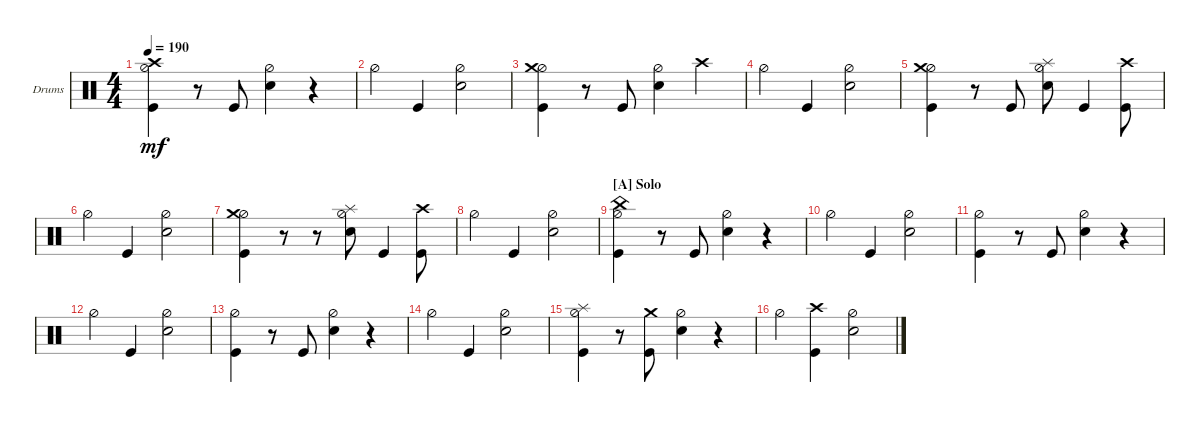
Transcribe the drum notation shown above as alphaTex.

\defaultSystemsLayout 4
\bracketExtendMode groupsimilarinstruments
\firstSystemTrackNameOrientation horizontal
\otherSystemsTrackNameOrientation horizontal
\track ("Drumkit" "Drums") {instrument percussion}
\staff {score}
\articulation defaults
\ts (4 4)
\tempo 190
\clef neutral
\ks c
("Hi-Hat (half)" "Kick (hit)" "Crash high (hit)").4{dy mf} r.8 "Kick (hit)".8 ("Hi-Hat (half)" "Snare (hit) 2").4 r.4 |
"Hi-Hat (half)".4 "Kick (hit)".4 ("Snare (hit) 2" "Hi-Hat (half)").2 |
("Hi-Hat (half)" "Kick (hit)" "Crash medium (hit)").4 r.8 "Kick (hit)".8 ("Hi-Hat (half)" "Snare (hit) 2").4 "Crash high (hit)".4 |
"Hi-Hat (half)".4 "Kick (hit)".4 ("Snare (hit) 2" "Hi-Hat (half)").2 |
("Hi-Hat (half)" "Kick (hit)" "Crash medium (hit)").4 r.8 "Kick (hit)".8 ("Hi-Hat (half)" "Snare (hit) 2" "Splash (hit)").8 "Kick (hit)".4 ("Kick (hit)" "Crash high (hit)").8 |
"Hi-Hat (half)".4 "Kick (hit)".4 ("Snare (hit) 2" "Hi-Hat (half)").2 |
("Hi-Hat (half)" "Kick (hit)" "Crash medium (hit)").4 r.8 r.8 ("Hi-Hat (half)" "Snare (hit) 2" "Splash (hit)").8 "Kick (hit)".4 ("Kick (hit)" "Crash high (hit)").8 |
"Hi-Hat (half)".4 "Kick (hit)".4 ("Snare (hit) 2" "Hi-Hat (half)").2 |
\section ("A" "Solo")
("Hi-Hat (half)" "Kick (hit)" "China (hit)").4 r.8 "Kick (hit)".8 ("Hi-Hat (half)" "Snare (hit) 2").4 r.4 |
"Hi-Hat (half)".4 "Kick (hit)".4 ("Snare (hit) 2" "Hi-Hat (half)").2 |
("Hi-Hat (half)" "Kick (hit)").4 r.8 "Kick (hit)".8 ("Hi-Hat (half)" "Snare (hit) 2").4 r.4 |
"Hi-Hat (half)".4 "Kick (hit)".4 ("Snare (hit) 2" "Hi-Hat (half)").2 |
("Hi-Hat (half)" "Kick (hit)").4 r.8 "Kick (hit)".8 ("Hi-Hat (half)" "Snare (hit) 2").4 r.4 |
"Hi-Hat (half)".4 "Kick (hit)".4 ("Snare (hit) 2" "Hi-Hat (half)").2 |
("Hi-Hat (half)" "Kick (hit)" "Splash (hit)").4 r.8 ("Kick (hit)" "Crash medium (hit)").8 ("Hi-Hat (half)" "Snare (hit) 2").4 r.4 |
"Hi-Hat (half)".4 ("Kick (hit)" "Crash high (hit)").4 ("Snare (hit) 2" "Hi-Hat (half)").2
